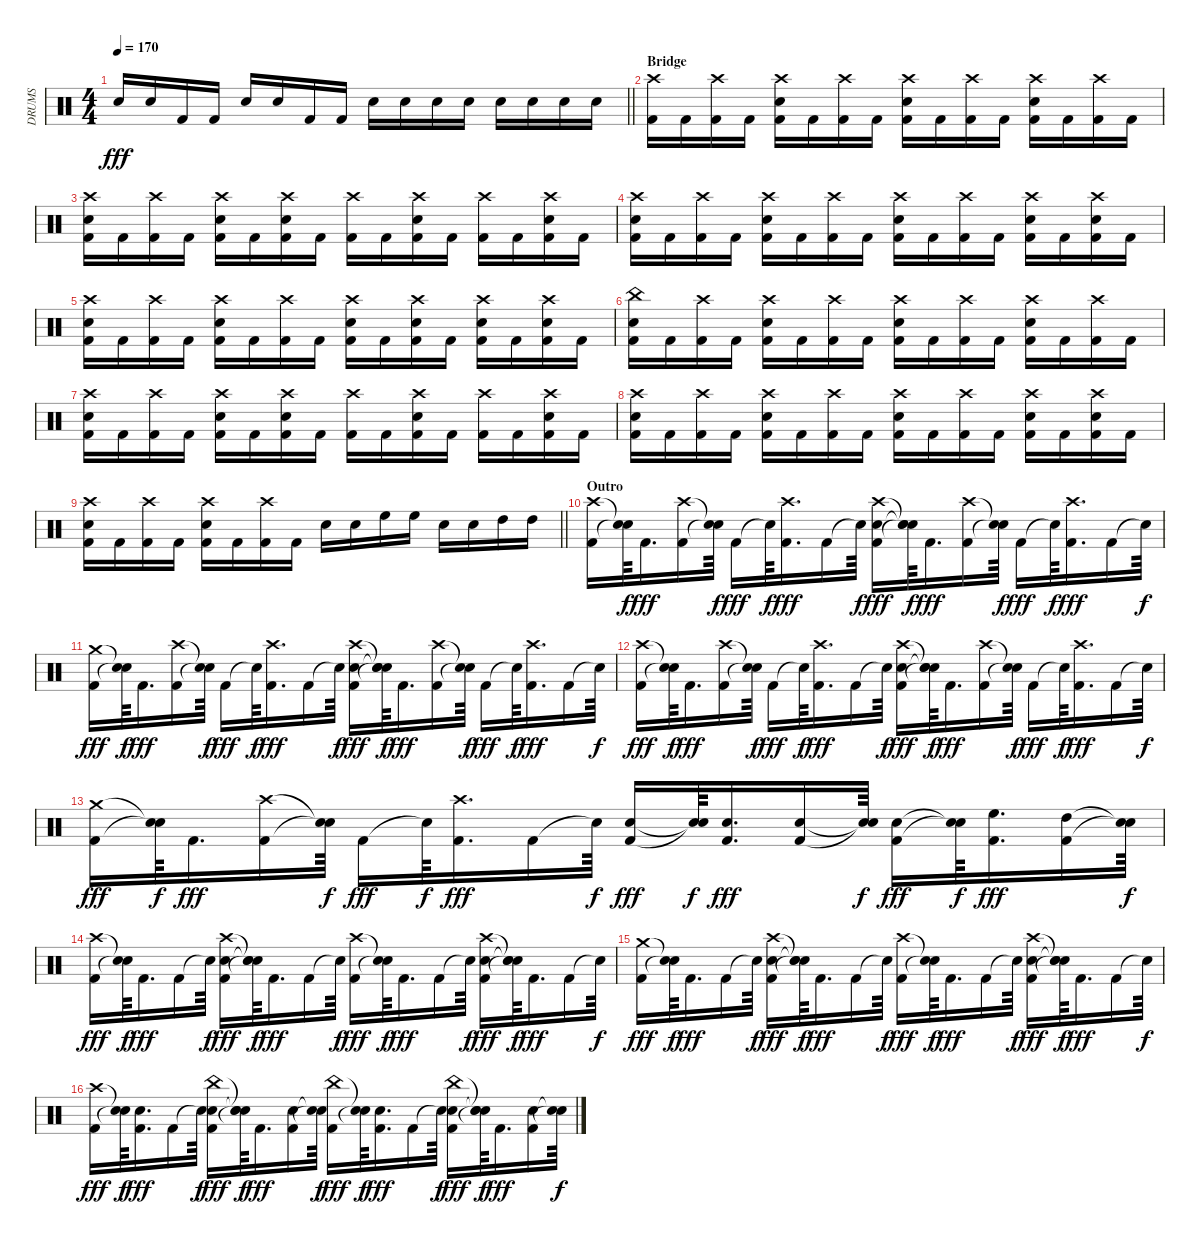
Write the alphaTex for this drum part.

\track ("DRUMS" "DRUMS") {instrument percussion}
\staff {score}
\articulation defaults
\ts (4 4)
\tempo 170
\clef neutral
\barLineRight lightlight
\ks c "Snare (hit) 2".16{dy fff} "Snare (hit) 2".16 "Kick (hit) 2".16 "Kick (hit) 2".16 "Snare (hit) 2".16 "Snare (hit) 2".16 "Kick (hit) 2".16 "Kick (hit) 2".16 "Snare (hit) 2".16 "Snare (hit) 2".16 "Snare (hit) 2".16 "Snare (hit) 2".16 "Snare (hit) 2".16 "Snare (hit) 2".16 "Snare (hit) 2".16 "Snare (hit) 2".16
|
\section ("" "Bridge")
("Kick (hit) 2" "Crash high (hit)").16 "Kick (hit) 2".16 ("Kick (hit) 2" "Crash high (hit)").16 "Kick (hit) 2".16 ("Snare (hit) 2" "Crash high (hit)" "Kick (hit) 2").16 "Kick (hit) 2".16 ("Kick (hit) 2" "Crash high (hit)").16 "Kick (hit) 2".16 ("Snare (hit) 2" "Crash high (hit)" "Kick (hit) 2").16 "Kick (hit) 2".16 ("Kick (hit) 2" "Crash high (hit)").16 "Kick (hit) 2".16 ("Kick (hit) 2" "Snare (hit) 2" "Crash high (hit)").16 "Kick (hit) 2".16 ("Kick (hit) 2" "Crash high (hit)").16 "Kick (hit) 2".16 |
("Snare (hit) 2" "Crash high (hit)" "Kick (hit) 2").16 "Kick (hit) 2".16 ("Kick (hit) 2" "Crash high (hit)").16 "Kick (hit) 2".16 ("Kick (hit) 2" "Snare (hit) 2" "Crash high (hit)").16 "Kick (hit) 2".16 ("Kick (hit) 2" "Snare (hit) 2" "Crash high (hit)").16 "Kick (hit) 2".16 ("Kick (hit) 2" "Crash high (hit)").16 "Kick (hit) 2".16 ("Snare (hit) 2" "Crash high (hit)" "Kick (hit) 2").16 "Kick (hit) 2".16 ("Kick (hit) 2" "Crash high (hit)").16 "Kick (hit) 2".16 ("Kick (hit) 2" "Snare (hit) 2" "Crash high (hit)").16 "Kick (hit) 2".16 |
("Kick (hit) 2" "Snare (hit) 2" "Crash high (hit)").16 "Kick (hit) 2".16 ("Kick (hit) 2" "Crash high (hit)").16 "Kick (hit) 2".16 ("Snare (hit) 2" "Crash high (hit)" "Kick (hit) 2").16 "Kick (hit) 2".16 ("Kick (hit) 2" "Crash high (hit)").16 "Kick (hit) 2".16 ("Snare (hit) 2" "Crash high (hit)" "Kick (hit) 2").16 "Kick (hit) 2".16 ("Kick (hit) 2" "Crash high (hit)").16 "Kick (hit) 2".16 ("Kick (hit) 2" "Snare (hit) 2" "Crash high (hit)").16 "Kick (hit) 2".16 ("Kick (hit) 2" "Snare (hit) 2" "Crash high (hit)").16 "Kick (hit) 2".16 |
("Kick (hit) 2" "Snare (hit) 2" "Crash high (hit)").16 "Kick (hit) 2".16 ("Kick (hit) 2" "Crash high (hit)").16 "Kick (hit) 2".16 ("Snare (hit) 2" "Crash high (hit)" "Kick (hit) 2").16 "Kick (hit) 2".16 ("Kick (hit) 2" "Crash high (hit)").16 "Kick (hit) 2".16 ("Kick (hit) 2" "Snare (hit) 2" "Crash high (hit)").16 "Kick (hit) 2".16 ("Kick (hit) 2" "Snare (hit) 2" "Crash high (hit)").16 "Kick (hit) 2".16 ("Kick (hit) 2" "Snare (hit) 2" "Crash high (hit)").16 "Kick (hit) 2".16 ("Kick (hit) 2" "Snare (hit) 2" "Crash high (hit)").16 "Kick (hit) 2".16 |
("Kick (hit) 2" "Snare (hit) 2" "China (hit)").16 "Kick (hit) 2".16 ("Kick (hit) 2" "Crash high (hit)").16 "Kick (hit) 2".16 ("Snare (hit) 2" "Crash high (hit)" "Kick (hit) 2").16 "Kick (hit) 2".16 ("Kick (hit) 2" "Crash high (hit)").16 "Kick (hit) 2".16 ("Snare (hit) 2" "Crash high (hit)" "Kick (hit) 2").16 "Kick (hit) 2".16 ("Kick (hit) 2" "Crash high (hit)").16 "Kick (hit) 2".16 ("Kick (hit) 2" "Snare (hit) 2" "Crash high (hit)").16 "Kick (hit) 2".16 ("Kick (hit) 2" "Crash high (hit)").16 "Kick (hit) 2".16 |
("Snare (hit) 2" "Crash high (hit)" "Kick (hit) 2").16 "Kick (hit) 2".16 ("Kick (hit) 2" "Crash high (hit)").16 "Kick (hit) 2".16 ("Kick (hit) 2" "Snare (hit) 2" "Crash high (hit)").16 "Kick (hit) 2".16 ("Kick (hit) 2" "Snare (hit) 2" "Crash high (hit)").16 "Kick (hit) 2".16 ("Kick (hit) 2" "Crash high (hit)").16 "Kick (hit) 2".16 ("Snare (hit) 2" "Crash high (hit)" "Kick (hit) 2").16 "Kick (hit) 2".16 ("Kick (hit) 2" "Crash high (hit)").16 "Kick (hit) 2".16 ("Kick (hit) 2" "Snare (hit) 2" "Crash high (hit)").16 "Kick (hit) 2".16 |
("Kick (hit) 2" "Snare (hit) 2" "Crash high (hit)").16 "Kick (hit) 2".16 ("Kick (hit) 2" "Crash high (hit)").16 "Kick (hit) 2".16 ("Snare (hit) 2" "Crash high (hit)" "Kick (hit) 2").16 "Kick (hit) 2".16 ("Kick (hit) 2" "Crash high (hit)").16 "Kick (hit) 2".16 ("Snare (hit) 2" "Crash high (hit)" "Kick (hit) 2").16 "Kick (hit) 2".16 ("Kick (hit) 2" "Crash high (hit)").16 "Kick (hit) 2".16 ("Kick (hit) 2" "Snare (hit) 2" "Crash high (hit)").16 "Kick (hit) 2".16 ("Kick (hit) 2" "Snare (hit) 2" "Crash high (hit)").16 "Kick (hit) 2".16 |
\barLineRight lightlight
("Kick (hit) 2" "Snare (hit) 2" "Crash high (hit)").16 "Kick (hit) 2".16 ("Kick (hit) 2" "Crash high (hit)").16 "Kick (hit) 2".16 ("Snare (hit) 2" "Crash high (hit)" "Kick (hit) 2").16 "Kick (hit) 2".16 ("Kick (hit) 2" "Crash high (hit)").16 "Kick (hit) 2".16 "Snare (hit) 2".16 "Snare (hit) 2".16 "High Floor Tom (hit)".16 "High Floor Tom (hit)".16 "Snare (hit) 2".16 "Snare (hit) 2".16 "High Tom (hit)".16 "High Tom (hit)".16 |
\section ("" "Outro")
("Kick (hit) 2" "Crash high (hit)").16 ("Snare (hit)"{t} "Snare (hit)"{t}).64{dy f} "Kick (hit) 2".16{d dy fff} ("Kick (hit) 2" "Crash high (hit)").16 ("Snare (hit)"{t} "Snare (hit)"{t}).64{dy f} "Kick (hit) 2".16{dy fff} "Snare (hit)"{t}.64{dy f} ("Kick (hit) 2" "Crash high (hit)").16{d dy fff} "Kick (hit) 2".16 "Snare (hit)"{t}.64{dy f} ("Snare (hit) 2" "Crash high (hit)" "Kick (hit) 2").16{dy fff} ("Snare (hit)"{t} "Snare (hit)"{t} "Snare (hit)"{t}).64{dy f} "Kick (hit) 2".16{d dy fff} ("Kick (hit) 2" "Crash high (hit)").16 ("Snare (hit)"{t} "Snare (hit)"{t}).64{dy f} "Kick (hit) 2".16{dy fff} "Snare (hit)"{t}.64{dy f} ("Kick (hit) 2" "Crash high (hit)").16{d dy fff} "Kick (hit) 2".16 "Snare (hit)"{t}.64{dy f} |
("Kick (hit) 2" "Crash medium (hit)").16{dy fff} ("Snare (hit)"{t} "Snare (hit)"{t}).64{dy f} "Kick (hit) 2".16{d dy fff} ("Kick (hit) 2" "Crash high (hit)").16 ("Snare (hit)"{t} "Snare (hit)"{t}).64{dy f} "Kick (hit) 2".16{dy fff} "Snare (hit)"{t}.64{dy f} ("Kick (hit) 2" "Crash high (hit)").16{d dy fff} "Kick (hit) 2".16 "Snare (hit)"{t}.64{dy f} ("Snare (hit) 2" "Crash high (hit)" "Kick (hit) 2").16{dy fff} ("Snare (hit)"{t} "Snare (hit)"{t} "Snare (hit)"{t}).64{dy f} "Kick (hit) 2".16{d dy fff} ("Kick (hit) 2" "Crash high (hit)").16 ("Snare (hit)"{t} "Snare (hit)"{t}).64{dy f} "Kick (hit) 2".16{dy fff} "Snare (hit)"{t}.64{dy f} ("Kick (hit) 2" "Crash high (hit)").16{d dy fff} "Kick (hit) 2".16 "Snare (hit)"{t}.64{dy f} |
("Kick (hit) 2" "Crash high (hit)").16{dy fff} ("Snare (hit)"{t} "Snare (hit)"{t}).64{dy f} "Kick (hit) 2".16{d dy fff} ("Kick (hit) 2" "Crash high (hit)").16 ("Snare (hit)"{t} "Snare (hit)"{t}).64{dy f} "Kick (hit) 2".16{dy fff} "Snare (hit)"{t}.64{dy f} ("Kick (hit) 2" "Crash high (hit)").16{d dy fff} "Kick (hit) 2".16 "Snare (hit)"{t}.64{dy f} ("Snare (hit) 2" "Crash high (hit)" "Kick (hit) 2").16{dy fff} ("Snare (hit)"{t} "Snare (hit)"{t} "Snare (hit)"{t}).64{dy f} "Kick (hit) 2".16{d dy fff} ("Kick (hit) 2" "Crash high (hit)").16 ("Snare (hit)"{t} "Snare (hit)"{t}).64{dy f} "Kick (hit) 2".16{dy fff} "Snare (hit)"{t}.64{dy f} ("Kick (hit) 2" "Crash high (hit)").16{d dy fff} "Kick (hit) 2".16 "Snare (hit)"{t}.64{dy f} |
("Kick (hit) 2" "Crash medium (hit)").16{dy fff} ("Snare (hit)"{t} "Snare (hit)"{t}).64{dy f} "Kick (hit) 2".16{d dy fff} ("Kick (hit) 2" "Crash high (hit)").16 ("Snare (hit)"{t} "Snare (hit)"{t}).64{dy f} "Kick (hit) 2".16{dy fff} "Snare (hit)"{t}.64{dy f} ("Kick (hit) 2" "Crash high (hit)").16{d dy fff} "Kick (hit) 2".16 "Snare (hit)"{t}.64{dy f} ("Kick (hit) 2" "Snare (hit) 2").16{dy fff} ("Snare (hit)"{t} "Snare (hit)"{t}).64{dy f} ("Kick (hit) 2" "Snare (hit) 2").16{d dy fff} ("Kick (hit) 2" "Snare (hit) 2").16 ("Snare (hit)"{t} "Snare (hit)"{t}).64{dy f} ("Kick (hit) 2" "Snare (hit) 2").16{dy fff} ("Snare (hit)"{t} "Snare (hit)"{t}).64{dy f} ("Kick (hit) 2" "High Floor Tom (hit)").16{d dy fff} ("Kick (hit) 2" "High Tom (hit)").16 ("Snare (hit)"{t} "Snare (hit)"{t}).64{dy f} |
("Kick (hit) 2" "Crash high (hit)").16{dy fff} ("Snare (hit)"{t} "Snare (hit)"{t}).64{dy f} "Kick (hit) 2".16{d dy fff} "Kick (hit) 2".16 "Snare (hit)"{t}.64{dy f} ("Snare (hit) 2" "Crash high (hit)" "Kick (hit) 2").16{dy fff} ("Snare (hit)"{t} "Snare (hit)"{t} "Snare (hit)"{t}).64{dy f} "Kick (hit) 2".16{d dy fff} "Kick (hit) 2".16 "Snare (hit)"{t}.64{dy f} ("Kick (hit) 2" "Crash high (hit)").16{dy fff} ("Snare (hit)"{t} "Snare (hit)"{t}).64{dy f} "Kick (hit) 2".16{d dy fff} "Kick (hit) 2".16 "Snare (hit)"{t}.64{dy f} ("Kick (hit) 2" "Snare (hit) 2" "Crash high (hit)").16{dy fff} ("Snare (hit)"{t} "Snare (hit)"{t} "Snare (hit)"{t}).64{dy f} "Kick (hit) 2".16{d dy fff} "Kick (hit) 2".16 "Snare (hit)"{t}.64{dy f} |
("Kick (hit) 2" "Crash medium (hit)").16{dy fff} ("Snare (hit)"{t} "Snare (hit)"{t}).64{dy f} "Kick (hit) 2".16{d dy fff} "Kick (hit) 2".16 "Snare (hit)"{t}.64{dy f} ("Snare (hit) 2" "Crash high (hit)" "Kick (hit) 2").16{dy fff} ("Snare (hit)"{t} "Snare (hit)"{t} "Snare (hit)"{t}).64{dy f} "Kick (hit) 2".16{d dy fff} "Kick (hit) 2".16 "Snare (hit)"{t}.64{dy f} ("Kick (hit) 2" "Crash high (hit)").16{dy fff} ("Snare (hit)"{t} "Snare (hit)"{t}).64{dy f} "Kick (hit) 2".16{d dy fff} "Kick (hit) 2".16 "Snare (hit)"{t}.64{dy f} ("Kick (hit) 2" "Snare (hit) 2" "Crash high (hit)").16{dy fff} ("Snare (hit)"{t} "Snare (hit)"{t} "Snare (hit)"{t}).64{dy f} "Kick (hit) 2".16{d dy fff} "Kick (hit) 2".16 "Snare (hit)"{t}.64{dy f} |
("Kick (hit) 2" "Crash high (hit)").16{dy fff} ("Snare (hit)"{t} "Snare (hit)"{t}).64{dy f} ("Kick (hit) 2" "Snare (hit) 2").16{d dy fff} "Kick (hit) 2".16 "Snare (hit)"{t}.64{dy f} ("Kick (hit) 2" "Snare (hit) 2" "China (hit)").16{dy fff} ("Snare (hit)"{t} "Snare (hit)"{t} "Snare (hit)"{t}).64{dy f} "Kick (hit) 2".16{d dy fff} ("Kick (hit) 2" "Snare (hit) 2").16 ("Snare (hit)"{t} "Snare (hit)"{t}).64{dy f} ("Kick (hit) 2" "China (hit)").16{dy fff} ("Snare (hit)"{t} "Snare (hit)"{t}).64{dy f} ("Kick (hit) 2" "Snare (hit) 2").16{d dy fff} "Kick (hit) 2".16 "Snare (hit)"{t}.64{dy f} ("Snare (hit) 2" "China (hit)" "Kick (hit) 2").16{dy fff} ("Snare (hit)"{t} "Snare (hit)"{t} "Snare (hit)"{t}).64{dy f} "Kick (hit) 2".16{d dy fff} ("Kick (hit) 2" "Snare (hit) 2").16 ("Snare (hit)"{t} "Snare (hit)"{t}).64{dy f}
